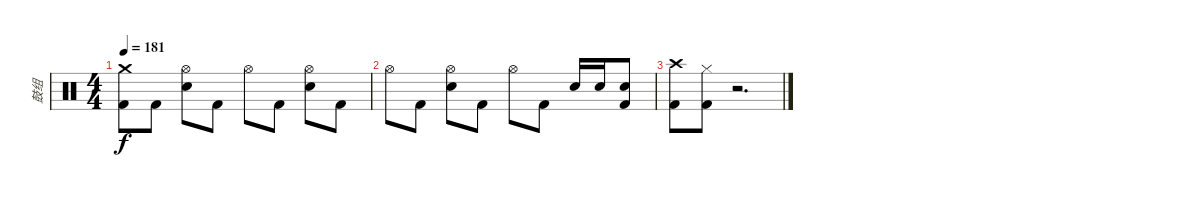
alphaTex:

\track ("鼓组" "鼓组") {instrument percussion}
\staff {score}
\articulation defaults
\ts (4 4)
\tempo 181
\clef neutral
\ks c
("Crash medium (hit)" "Kick (hit) 2").8{dy f} "Kick (hit) 2".8 ("Hi-Hat (open)" "Snare (hit) 2").8 "Kick (hit) 2".8 "Hi-Hat (open)".8 "Kick (hit) 2".8 ("Hi-Hat (open)" "Snare (hit) 2").8 "Kick (hit) 2".8 |
"Hi-Hat (open)".8 "Kick (hit) 2".8 ("Hi-Hat (open)" "Snare (hit) 2").8 "Kick (hit) 2".8 "Hi-Hat (open)".8 "Kick (hit) 2".8 "Snare (hit) 2".16 "Snare (hit) 2".16 ("Snare (hit) 2" "Kick (hit) 2").8 |
("Crash high (hit)" "Kick (hit) 2").8 ("Hi-Hat (closed)" "Kick (hit) 2").8 r.2{d}
